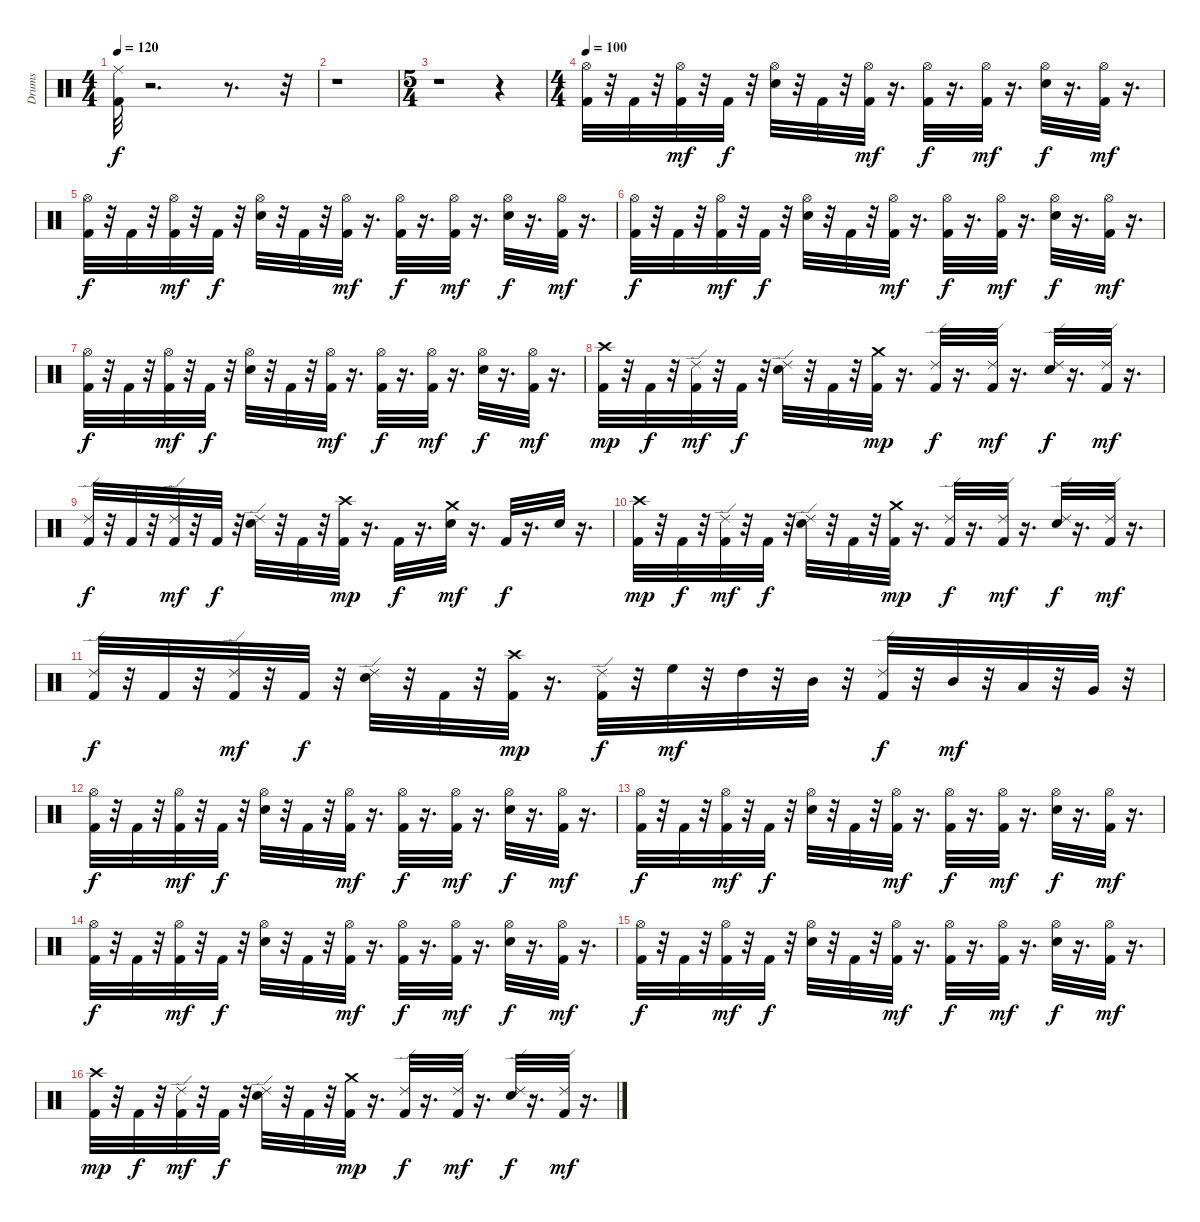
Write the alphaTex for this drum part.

\track ("Drums" "Drums") {instrument percussion}
\staff {score}
\articulation defaults
\ts (4 4)
\tempo 120
\clef neutral
\ks c
("Kick (hit) 2" "Ride (middle)").32{dy f} r.2{d} r.8{d} r.32 |
r.1 |
\ts (5 4)
r.1 r.4 |
\ts (4 4)
\tempo 100
("Kick (hit) 2" "Hi-Hat (open)").32 r.32 "Kick (hit) 2".32 r.32 ("Kick (hit) 2" "Hi-Hat (open)").32{dy mf} r.32 "Kick (hit) 2".32{dy f} r.32 ("Snare (hit) 2" "Hi-Hat (open)").32 r.32 "Kick (hit) 2".32 r.32 ("Kick (hit) 2" "Hi-Hat (open)").32{dy mf} r.16{d} ("Kick (hit) 2" "Hi-Hat (open)").32{dy f} r.16{d} ("Kick (hit) 2" "Hi-Hat (open)").32{dy mf} r.16{d} ("Snare (hit) 2" "Hi-Hat (open)").32{dy f} r.16{d} ("Kick (hit) 2" "Hi-Hat (open)").32{dy mf} r.16{d} |
("Kick (hit) 2" "Hi-Hat (open)").32{dy f} r.32 "Kick (hit) 2".32 r.32 ("Kick (hit) 2" "Hi-Hat (open)").32{dy mf} r.32 "Kick (hit) 2".32{dy f} r.32 ("Snare (hit) 2" "Hi-Hat (open)").32 r.32 "Kick (hit) 2".32 r.32 ("Kick (hit) 2" "Hi-Hat (open)").32{dy mf} r.16{d} ("Kick (hit) 2" "Hi-Hat (open)").32{dy f} r.16{d} ("Kick (hit) 2" "Hi-Hat (open)").32{dy mf} r.16{d} ("Snare (hit) 2" "Hi-Hat (open)").32{dy f} r.16{d} ("Kick (hit) 2" "Hi-Hat (open)").32{dy mf} r.16{d} |
("Kick (hit) 2" "Hi-Hat (open)").32{dy f} r.32 "Kick (hit) 2".32 r.32 ("Kick (hit) 2" "Hi-Hat (open)").32{dy mf} r.32 "Kick (hit) 2".32{dy f} r.32 ("Snare (hit) 2" "Hi-Hat (open)").32 r.32 "Kick (hit) 2".32 r.32 ("Kick (hit) 2" "Hi-Hat (open)").32{dy mf} r.16{d} ("Kick (hit) 2" "Hi-Hat (open)").32{dy f} r.16{d} ("Kick (hit) 2" "Hi-Hat (open)").32{dy mf} r.16{d} ("Snare (hit) 2" "Hi-Hat (open)").32{dy f} r.16{d} ("Kick (hit) 2" "Hi-Hat (open)").32{dy mf} r.16{d} |
("Kick (hit) 2" "Hi-Hat (open)").32{dy f} r.32 "Kick (hit) 2".32 r.32 ("Kick (hit) 2" "Hi-Hat (open)").32{dy mf} r.32 "Kick (hit) 2".32{dy f} r.32 ("Snare (hit) 2" "Hi-Hat (open)").32 r.32 "Kick (hit) 2".32 r.32 ("Kick (hit) 2" "Hi-Hat (open)").32{dy mf} r.16{d} ("Kick (hit) 2" "Hi-Hat (open)").32{dy f} r.16{d} ("Kick (hit) 2" "Hi-Hat (open)").32{dy mf} r.16{d} ("Snare (hit) 2" "Hi-Hat (open)").32{dy f} r.16{d} ("Kick (hit) 2" "Hi-Hat (open)").32{dy mf} r.16{d} |
("Kick (hit) 2" "Crash high (hit)").32{dy mp} r.32 "Kick (hit) 2".32{dy f} r.32 ("Kick (hit) 2" "Ride (edge) 2").32{dy mf} r.32 "Kick (hit) 2".32{dy f} r.32 ("Snare (hit) 2" "Ride (edge) 2").32 r.32 "Kick (hit) 2".32 r.32 ("Kick (hit) 2" "Crash medium (hit)").32{dy mp} r.16{d} ("Kick (hit) 2" "Ride (edge) 2").32{dy f} r.16{d} ("Kick (hit) 2" "Ride (edge) 2").32{dy mf} r.16{d} ("Snare (hit) 2" "Ride (edge) 2").32{dy f} r.16{d} ("Kick (hit) 2" "Ride (edge) 2").32{dy mf} r.16{d} |
("Kick (hit) 2" "Ride (edge) 2").32{dy f} r.32 "Kick (hit) 2".32 r.32 ("Kick (hit) 2" "Ride (edge) 2").32{dy mf} r.32 "Kick (hit) 2".32{dy f} r.32 ("Snare (hit) 2" "Ride (edge) 2").32 r.32 "Kick (hit) 2".32 r.32 ("Kick (hit) 2" "Crash high (hit)").32{dy mp} r.16{d} "Kick (hit) 2".32{dy f} r.16{d} ("Snare (hit) 2" "Crash medium (hit)").32{dy mf} r.16{d} "Kick (hit) 2".32{dy f} r.16{d} "Snare (hit) 2".32 r.16{d} |
("Kick (hit) 2" "Crash high (hit)").32{dy mp} r.32 "Kick (hit) 2".32{dy f} r.32 ("Kick (hit) 2" "Ride (edge) 2").32{dy mf} r.32 "Kick (hit) 2".32{dy f} r.32 ("Snare (hit) 2" "Ride (edge) 2").32 r.32 "Kick (hit) 2".32 r.32 ("Kick (hit) 2" "Crash medium (hit)").32{dy mp} r.16{d} ("Kick (hit) 2" "Ride (edge) 2").32{dy f} r.16{d} ("Kick (hit) 2" "Ride (edge) 2").32{dy mf} r.16{d} ("Snare (hit) 2" "Ride (edge) 2").32{dy f} r.16{d} ("Kick (hit) 2" "Ride (edge) 2").32{dy mf} r.16{d} |
("Kick (hit) 2" "Ride (edge) 2").32{dy f} r.32 "Kick (hit) 2".32 r.32 ("Kick (hit) 2" "Ride (edge) 2").32{dy mf} r.32 "Kick (hit) 2".32{dy f} r.32 ("Snare (hit) 2" "Ride (edge) 2").32 r.32 "Kick (hit) 2".32 r.32 ("Kick (hit) 2" "Crash high (hit)").32{dy mp} r.16{d} ("Kick (hit) 2" "Ride (edge) 2").32{dy f} r.32 "High Floor Tom (hit)".32{dy mf} r.32 "High Tom (hit)".32 r.32 "Mid Tom (hit)".32 r.32 ("Kick (hit) 2" "Ride (edge) 2").32{dy f} r.32 "Mid Tom (hit)".32{dy mf} r.32 "Low Tom (hit)".32 r.32 "Very Low Tom (hit)".32 r.32 |
("Kick (hit) 2" "Hi-Hat (open)").32{dy f} r.32 "Kick (hit) 2".32 r.32 ("Kick (hit) 2" "Hi-Hat (open)").32{dy mf} r.32 "Kick (hit) 2".32{dy f} r.32 ("Snare (hit) 2" "Hi-Hat (open)").32 r.32 "Kick (hit) 2".32 r.32 ("Kick (hit) 2" "Hi-Hat (open)").32{dy mf} r.16{d} ("Kick (hit) 2" "Hi-Hat (open)").32{dy f} r.16{d} ("Kick (hit) 2" "Hi-Hat (open)").32{dy mf} r.16{d} ("Snare (hit) 2" "Hi-Hat (open)").32{dy f} r.16{d} ("Kick (hit) 2" "Hi-Hat (open)").32{dy mf} r.16{d} |
("Kick (hit) 2" "Hi-Hat (open)").32{dy f} r.32 "Kick (hit) 2".32 r.32 ("Kick (hit) 2" "Hi-Hat (open)").32{dy mf} r.32 "Kick (hit) 2".32{dy f} r.32 ("Snare (hit) 2" "Hi-Hat (open)").32 r.32 "Kick (hit) 2".32 r.32 ("Kick (hit) 2" "Hi-Hat (open)").32{dy mf} r.16{d} ("Kick (hit) 2" "Hi-Hat (open)").32{dy f} r.16{d} ("Kick (hit) 2" "Hi-Hat (open)").32{dy mf} r.16{d} ("Snare (hit) 2" "Hi-Hat (open)").32{dy f} r.16{d} ("Kick (hit) 2" "Hi-Hat (open)").32{dy mf} r.16{d} |
("Kick (hit) 2" "Hi-Hat (open)").32{dy f} r.32 "Kick (hit) 2".32 r.32 ("Kick (hit) 2" "Hi-Hat (open)").32{dy mf} r.32 "Kick (hit) 2".32{dy f} r.32 ("Snare (hit) 2" "Hi-Hat (open)").32 r.32 "Kick (hit) 2".32 r.32 ("Kick (hit) 2" "Hi-Hat (open)").32{dy mf} r.16{d} ("Kick (hit) 2" "Hi-Hat (open)").32{dy f} r.16{d} ("Kick (hit) 2" "Hi-Hat (open)").32{dy mf} r.16{d} ("Snare (hit) 2" "Hi-Hat (open)").32{dy f} r.16{d} ("Kick (hit) 2" "Hi-Hat (open)").32{dy mf} r.16{d} |
("Kick (hit) 2" "Hi-Hat (open)").32{dy f} r.32 "Kick (hit) 2".32 r.32 ("Kick (hit) 2" "Hi-Hat (open)").32{dy mf} r.32 "Kick (hit) 2".32{dy f} r.32 ("Snare (hit) 2" "Hi-Hat (open)").32 r.32 "Kick (hit) 2".32 r.32 ("Kick (hit) 2" "Hi-Hat (open)").32{dy mf} r.16{d} ("Kick (hit) 2" "Hi-Hat (open)").32{dy f} r.16{d} ("Kick (hit) 2" "Hi-Hat (open)").32{dy mf} r.16{d} ("Snare (hit) 2" "Hi-Hat (open)").32{dy f} r.16{d} ("Kick (hit) 2" "Hi-Hat (open)").32{dy mf} r.16{d} |
("Kick (hit) 2" "Crash high (hit)").32{dy mp} r.32 "Kick (hit) 2".32{dy f} r.32 ("Kick (hit) 2" "Ride (edge) 2").32{dy mf} r.32 "Kick (hit) 2".32{dy f} r.32 ("Snare (hit) 2" "Ride (edge) 2").32 r.32 "Kick (hit) 2".32 r.32 ("Kick (hit) 2" "Crash medium (hit)").32{dy mp} r.16{d} ("Kick (hit) 2" "Ride (edge) 2").32{dy f} r.16{d} ("Kick (hit) 2" "Ride (edge) 2").32{dy mf} r.16{d} ("Snare (hit) 2" "Ride (edge) 2").32{dy f} r.16{d} ("Kick (hit) 2" "Ride (edge) 2").32{dy mf} r.16{d}
